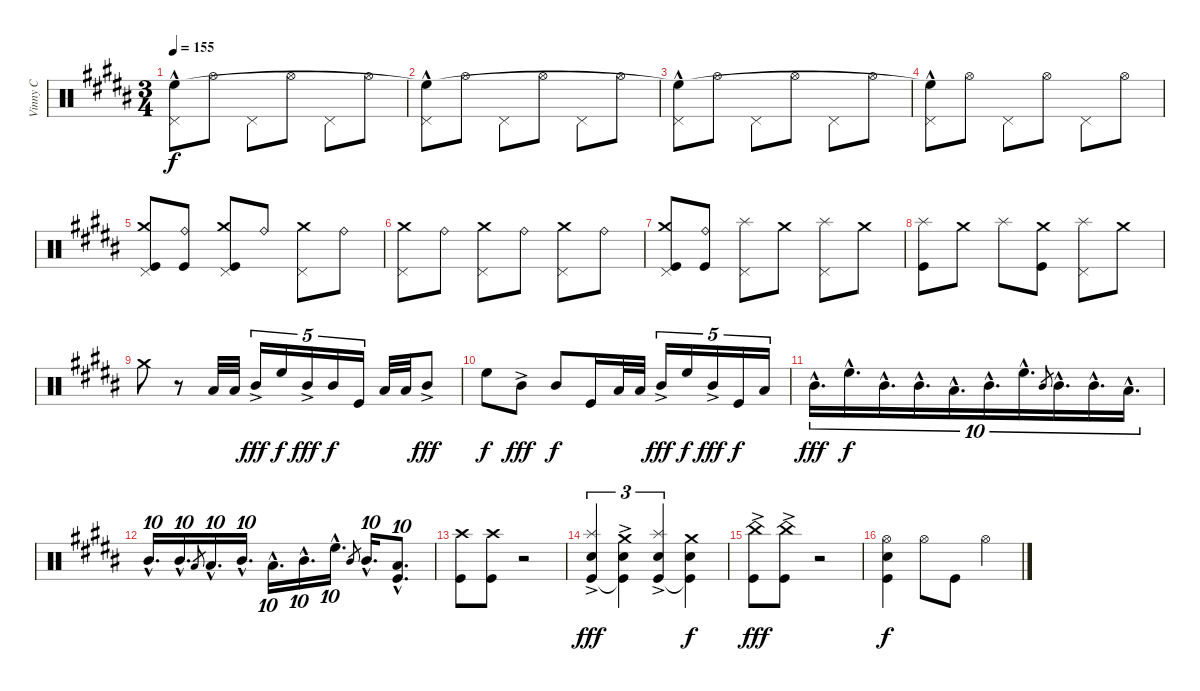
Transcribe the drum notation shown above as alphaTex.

\track ("Vinny C" "Vinny C") {instrument percussion}
\staff {score}
\articulation defaults
\ts (3 4)
\tempo 155
\clef neutral
\ks b
("Pedal Hi-Hat (hit)" "High Floor Tom (hit)"{hac t}).8{dy f} "Hi-Hat (open)".8 "Pedal Hi-Hat (hit)".8 "Hi-Hat (open)".8 "Pedal Hi-Hat (hit)".8 "Hi-Hat (open)".8 |
("Pedal Hi-Hat (hit)" "High Floor Tom (hit)"{hac t}).8 "Hi-Hat (open)".8 "Pedal Hi-Hat (hit)".8 "Hi-Hat (open)".8 "Pedal Hi-Hat (hit)".8 "Hi-Hat (open)".8 |
("Pedal Hi-Hat (hit)" "High Floor Tom (hit)"{hac t}).8 "Hi-Hat (open)".8 "Pedal Hi-Hat (hit)".8 "Hi-Hat (open)".8 "Pedal Hi-Hat (hit)".8 "Hi-Hat (open)".8 |
("Pedal Hi-Hat (hit)" "High Floor Tom (hit)"{hac t}).8 "Hi-Hat (open)".8 "Pedal Hi-Hat (hit)".8 "Hi-Hat (open)".8 "Pedal Hi-Hat (hit)".8 "Hi-Hat (open)".8 |
("Pedal Hi-Hat (hit)" "Crash medium (hit)" "Kick (hit)").8 ("Ride (bell)" "Kick (hit)").8 ("Pedal Hi-Hat (hit)" "Crash medium (hit)" "Kick (hit)").8 "Ride (bell)".8 ("Crash medium (hit)" "Pedal Hi-Hat (hit)").8 "Ride (bell)".8 |
("Crash medium (hit)" "Pedal Hi-Hat (hit)").8 "Ride (bell)".8 ("Crash medium (hit)" "Pedal Hi-Hat (hit)").8 "Ride (bell)".8 ("Crash medium (hit)" "Pedal Hi-Hat (hit)").8 "Ride (bell)".8 |
("Crash medium (hit)" "Pedal Hi-Hat (hit)" "Kick (hit)").8 ("Ride (bell)" "Kick (hit)").8 ("Splash (hit)" "Pedal Hi-Hat (hit)").8 "Crash medium (hit)".8 ("Splash (hit)" "Pedal Hi-Hat (hit)").8 "Crash medium (hit)".8 |
("Splash (hit)" "Kick (hit)").8 "Crash medium (hit)".8 "Splash (hit)".8 ("Crash medium (hit)" "Kick (hit)").8 ("Splash (hit)" "Pedal Hi-Hat (hit)").8 "Crash medium (hit)".8 |
"Crash medium (hit)".8 r.8 "Low Tom (hit)".32 "Low Tom (hit)".32 "Mid Tom (hit)"{ac}.16{tu (5 4) dy fff} "High Floor Tom (hit)".16{tu (5 4) dy f} "Mid Tom (hit)"{ac}.16{tu (5 4) dy fff} "Mid Tom (hit)".16{tu (5 4) dy f} "Kick (hit)".16{tu (5 4)} "Low Tom (hit)".32 "Low Tom (hit)".32 "Mid Tom (hit)"{ac}.8{dy fff} |
"High Floor Tom (hit)".8{dy f} "Mid Tom (hit)"{ac}.8{dy fff} "Mid Tom (hit)".8{dy f} "Kick (hit)".16 "Low Tom (hit)".32 "Low Tom (hit)".32 "Mid Tom (hit)"{ac}.16{tu (5 4) dy fff} "High Floor Tom (hit)".16{tu (5 4) dy f} "Mid Tom (hit)"{ac}.16{tu (5 4) dy fff} "Kick (hit)".16{tu (5 4) dy f} "Low Tom (hit)".16{tu (5 4)} |
"Mid Tom (hit)"{hac}.16{d tu (10 8) dy fff} "High Floor Tom (hit)"{hac}.16{d tu (10 8) dy f} "Mid Tom (hit)"{hac}.16{d tu (10 8)} "Mid Tom (hit)"{hac}.16{d tu (10 8)} "Low Tom (hit)"{hac}.16{d tu (10 8)} "Mid Tom (hit)"{hac}.16{d tu (10 8)} "High Floor Tom (hit)"{hac}.16{d tu (10 8)} "Mid Tom (hit)".8{gr} "Mid Tom (hit)"{hac}.16{d tu (10 8)} "Mid Tom (hit)"{hac}.16{d tu (10 8)} "Low Tom (hit)"{hac}.16{d tu (10 8)} |
"Mid Tom (hit)"{hac}.16{d tu (10 8)} "Mid Tom (hit)"{hac}.16{d tu (10 8)} "Low Tom (hit)".8{gr} "Low Tom (hit)"{hac}.16{d tu (10 8)} "Mid Tom (hit)"{hac}.16{d tu (10 8)} "Low Tom (hit)"{hac}.16{d tu (10 8)} "Mid Tom (hit)"{hac}.16{d tu (10 8)} "High Floor Tom (hit)"{hac}.16{d tu (10 8)} "Mid Tom (hit)".8{gr} "Mid Tom (hit)"{hac}.16{d tu (10 8)} ("Low Tom (hit)"{hac} "Kick (hit)"{hac}).8{d tu (10 8)} |
("Crash high (hit)" "Kick (hit)").8 ("Crash high (hit)" "Kick (hit)").8 r.2 |
("Splash (hit)" "Electric Snare (hit)"{ac} "Kick (hit)").4{tu (3 2) dy fff} ("Crash medium (hit)"{ac} "Electric Snare (hit)" "Kick (hit)"{t}).4{tu (3 2)} ("Splash (hit)"{ac} "Electric Snare (hit)"{ac} "Kick (hit)").4{tu (3 2)} ("Crash medium (hit)" "Electric Snare (hit)" "Kick (hit)"{t}).4{dy f} |
("China (hit)"{ac} "Kick (hit)").8{dy fff} ("China (hit)"{ac} "Kick (hit)").8 r.2 |
("Hi-Hat (open)" "Electric Snare (hit)" "Kick (hit)").4{dy f} "Hi-Hat (open)".8 "Kick (hit)".8 "Hi-Hat (open)".4
